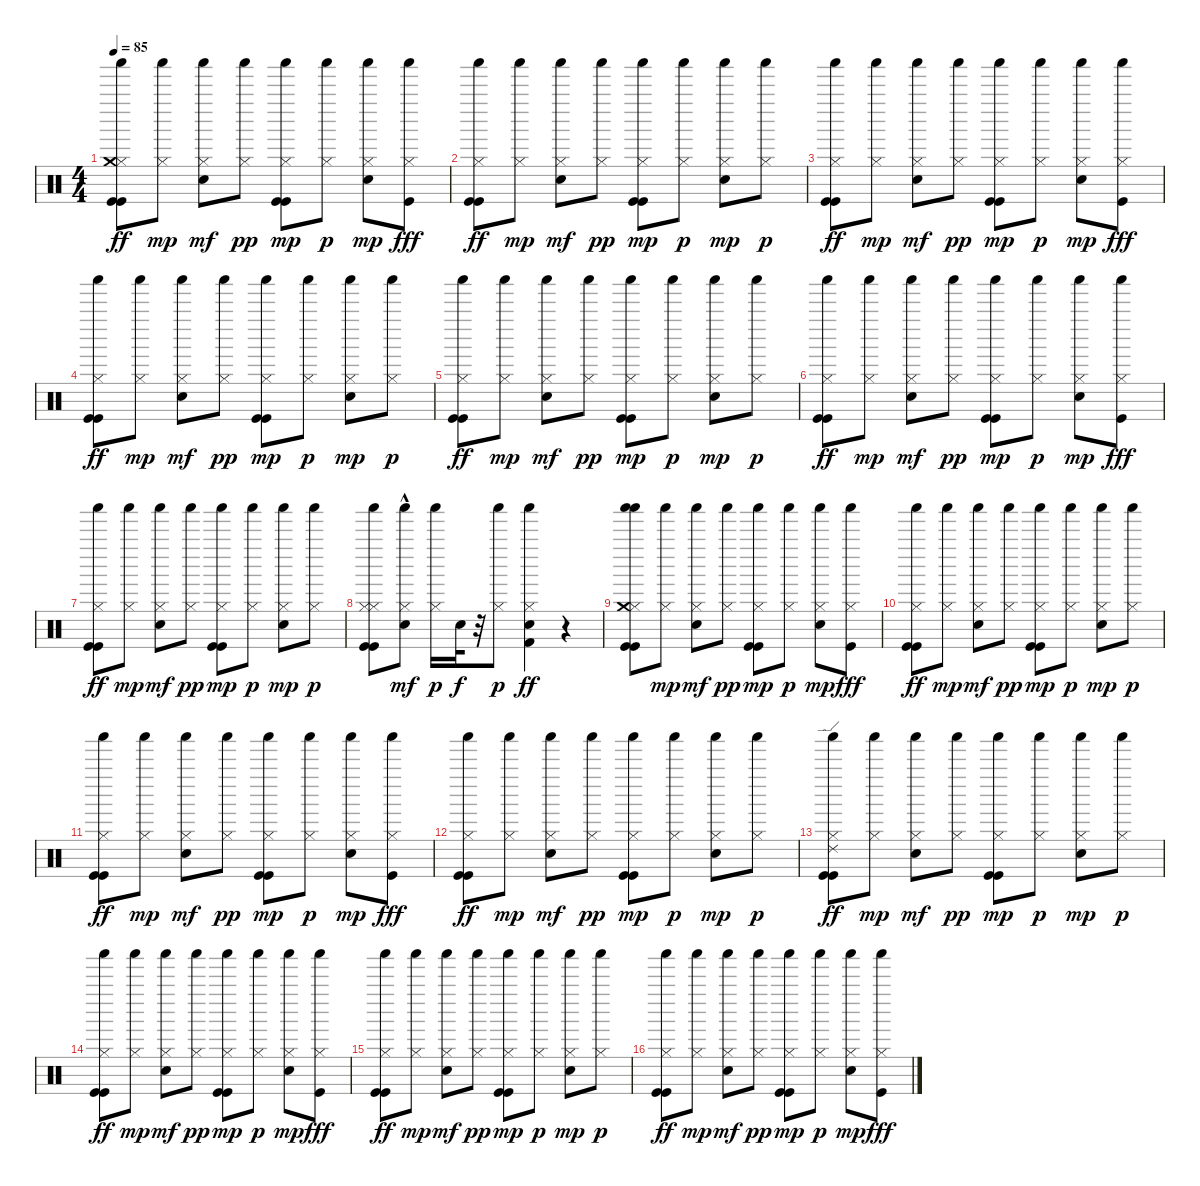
\track "" {instrument percussion}
\staff {score}
\articulation defaults
\ts (4 4)
\tempo 85
\clef neutral
\ks c
("Kick (hit)" "Hi-Hat (closed)" "Shaker (hit)" "Kick (hit)" "Crash medium (hit)").8{dy ff} ("Hi-Hat (closed)" "Shaker (hit)").8{dy mp} ("Hi-Hat (closed)" "Shaker (hit)" "Metronome (bell)").8{dy mf} ("Hi-Hat (closed)" "Shaker (hit)").8{dy pp} ("Kick (hit)" "Kick (hit)" "Hi-Hat (closed)" "Shaker (hit)").8{dy mp} ("Hi-Hat (closed)" "Shaker (hit)").8{dy p} ("Metronome (bell)" "Shaker (hit)" "Hi-Hat (closed)").8{dy mp} ("Hi-Hat (closed)" "Shaker (hit)" "Kick (hit)").8{dy fff} |
("Kick (hit)" "Hi-Hat (closed)" "Shaker (hit)" "Kick (hit)").8{dy ff} ("Hi-Hat (closed)" "Shaker (hit)").8{dy mp} ("Hi-Hat (closed)" "Shaker (hit)" "Metronome (bell)").8{dy mf} ("Hi-Hat (closed)" "Shaker (hit)").8{dy pp} ("Kick (hit)" "Kick (hit)" "Hi-Hat (closed)" "Shaker (hit)").8{dy mp} ("Hi-Hat (closed)" "Shaker (hit)").8{dy p} ("Metronome (bell)" "Shaker (hit)" "Hi-Hat (closed)").8{dy mp} ("Hi-Hat (closed)" "Shaker (hit)").8{dy p} |
("Kick (hit)" "Hi-Hat (closed)" "Shaker (hit)" "Kick (hit)").8{dy ff} ("Hi-Hat (closed)" "Shaker (hit)").8{dy mp} ("Hi-Hat (closed)" "Shaker (hit)" "Metronome (bell)").8{dy mf} ("Hi-Hat (closed)" "Shaker (hit)").8{dy pp} ("Kick (hit)" "Kick (hit)" "Hi-Hat (closed)" "Shaker (hit)").8{dy mp} ("Hi-Hat (closed)" "Shaker (hit)").8{dy p} ("Metronome (bell)" "Shaker (hit)" "Hi-Hat (closed)").8{dy mp} ("Hi-Hat (closed)" "Shaker (hit)" "Kick (hit)").8{dy fff} |
("Kick (hit)" "Hi-Hat (closed)" "Shaker (hit)" "Kick (hit)").8{dy ff} ("Hi-Hat (closed)" "Shaker (hit)").8{dy mp} ("Hi-Hat (closed)" "Shaker (hit)" "Metronome (bell)").8{dy mf} ("Hi-Hat (closed)" "Shaker (hit)").8{dy pp} ("Kick (hit)" "Kick (hit)" "Hi-Hat (closed)" "Shaker (hit)").8{dy mp} ("Hi-Hat (closed)" "Shaker (hit)").8{dy p} ("Metronome (bell)" "Shaker (hit)" "Hi-Hat (closed)").8{dy mp} ("Hi-Hat (closed)" "Shaker (hit)").8{dy p} |
("Kick (hit)" "Hi-Hat (closed)" "Shaker (hit)" "Kick (hit)").8{dy ff} ("Hi-Hat (closed)" "Shaker (hit)").8{dy mp} ("Hi-Hat (closed)" "Shaker (hit)" "Metronome (bell)").8{dy mf} ("Hi-Hat (closed)" "Shaker (hit)").8{dy pp} ("Kick (hit)" "Kick (hit)" "Hi-Hat (closed)" "Shaker (hit)").8{dy mp} ("Hi-Hat (closed)" "Shaker (hit)").8{dy p} ("Metronome (bell)" "Shaker (hit)" "Hi-Hat (closed)").8{dy mp} ("Hi-Hat (closed)" "Shaker (hit)").8{dy p} |
("Kick (hit)" "Hi-Hat (closed)" "Shaker (hit)" "Kick (hit)").8{dy ff} ("Hi-Hat (closed)" "Shaker (hit)").8{dy mp} ("Hi-Hat (closed)" "Shaker (hit)" "Metronome (bell)").8{dy mf} ("Hi-Hat (closed)" "Shaker (hit)").8{dy pp} ("Kick (hit)" "Kick (hit)" "Hi-Hat (closed)" "Shaker (hit)").8{dy mp} ("Hi-Hat (closed)" "Shaker (hit)").8{dy p} ("Metronome (bell)" "Shaker (hit)" "Hi-Hat (closed)").8{dy mp} ("Hi-Hat (closed)" "Shaker (hit)" "Kick (hit)").8{dy fff} |
("Kick (hit)" "Hi-Hat (closed)" "Shaker (hit)" "Kick (hit)").8{dy ff} ("Hi-Hat (closed)" "Shaker (hit)").8{dy mp} ("Hi-Hat (closed)" "Shaker (hit)" "Metronome (bell)").8{dy mf} ("Hi-Hat (closed)" "Shaker (hit)").8{dy pp} ("Kick (hit)" "Kick (hit)" "Hi-Hat (closed)" "Shaker (hit)").8{dy mp} ("Hi-Hat (closed)" "Shaker (hit)").8{dy p} ("Metronome (bell)" "Shaker (hit)" "Hi-Hat (closed)").8{dy mp} ("Hi-Hat (closed)" "Shaker (hit)").8{dy p} |
("Kick (hit)" "Hi-Hat (closed)" "Shaker (hit)" "Kick (hit)" "Hi-Hat (closed)").8 ("Hi-Hat (closed)" "Shaker (hit)" "Metronome (bell)"{hac}).8{dy mf} ("Hi-Hat (closed)" "Shaker (hit)").16{dy p} "Metronome (bell)".32{dy f} r.32 ("Hi-Hat (closed)" "Shaker (hit)").8{dy p} ("Metronome (bell)" "Hi-Hat (closed)" "Shaker (hit)" "Kick (hit) 2").4{dy ff} r.4 |
("Shaker (hit)" "Kick (hit)" "Hi-Hat (closed)" "Shaker (hit)" "Kick (hit)" "Crash medium (hit)").8 ("Hi-Hat (closed)" "Shaker (hit)").8{dy mp} ("Hi-Hat (closed)" "Shaker (hit)" "Metronome (bell)").8{dy mf} ("Hi-Hat (closed)" "Shaker (hit)").8{dy pp} ("Kick (hit)" "Kick (hit)" "Hi-Hat (closed)" "Shaker (hit)").8{dy mp} ("Hi-Hat (closed)" "Shaker (hit)").8{dy p} ("Metronome (bell)" "Shaker (hit)" "Hi-Hat (closed)").8{dy mp} ("Hi-Hat (closed)" "Shaker (hit)" "Kick (hit)").8{dy fff} |
("Kick (hit)" "Hi-Hat (closed)" "Shaker (hit)" "Kick (hit)").8{dy ff} ("Hi-Hat (closed)" "Shaker (hit)").8{dy mp} ("Hi-Hat (closed)" "Shaker (hit)" "Metronome (bell)").8{dy mf} ("Hi-Hat (closed)" "Shaker (hit)").8{dy pp} ("Kick (hit)" "Kick (hit)" "Hi-Hat (closed)" "Shaker (hit)").8{dy mp} ("Hi-Hat (closed)" "Shaker (hit)").8{dy p} ("Metronome (bell)" "Shaker (hit)" "Hi-Hat (closed)").8{dy mp} ("Hi-Hat (closed)" "Shaker (hit)").8{dy p} |
("Kick (hit)" "Hi-Hat (closed)" "Shaker (hit)" "Kick (hit)").8{dy ff} ("Hi-Hat (closed)" "Shaker (hit)").8{dy mp} ("Hi-Hat (closed)" "Shaker (hit)" "Metronome (bell)").8{dy mf} ("Hi-Hat (closed)" "Shaker (hit)").8{dy pp} ("Kick (hit)" "Kick (hit)" "Hi-Hat (closed)" "Shaker (hit)").8{dy mp} ("Hi-Hat (closed)" "Shaker (hit)").8{dy p} ("Metronome (bell)" "Shaker (hit)" "Hi-Hat (closed)").8{dy mp} ("Hi-Hat (closed)" "Shaker (hit)" "Kick (hit)").8{dy fff} |
("Kick (hit)" "Hi-Hat (closed)" "Shaker (hit)" "Kick (hit)").8{dy ff} ("Hi-Hat (closed)" "Shaker (hit)").8{dy mp} ("Hi-Hat (closed)" "Shaker (hit)" "Metronome (bell)").8{dy mf} ("Hi-Hat (closed)" "Shaker (hit)").8{dy pp} ("Kick (hit)" "Kick (hit)" "Hi-Hat (closed)" "Shaker (hit)").8{dy mp} ("Hi-Hat (closed)" "Shaker (hit)").8{dy p} ("Metronome (bell)" "Shaker (hit)" "Hi-Hat (closed)").8{dy mp} ("Hi-Hat (closed)" "Shaker (hit)").8{dy p} |
("Kick (hit)" "Hi-Hat (closed)" "Shaker (hit)" "Kick (hit)" "Ride (edge) 2").8{dy ff} ("Hi-Hat (closed)" "Shaker (hit)").8{dy mp} ("Hi-Hat (closed)" "Shaker (hit)" "Metronome (bell)").8{dy mf} ("Hi-Hat (closed)" "Shaker (hit)").8{dy pp} ("Kick (hit)" "Kick (hit)" "Hi-Hat (closed)" "Shaker (hit)").8{dy mp} ("Hi-Hat (closed)" "Shaker (hit)").8{dy p} ("Metronome (bell)" "Shaker (hit)" "Hi-Hat (closed)").8{dy mp} ("Hi-Hat (closed)" "Shaker (hit)").8{dy p} |
("Kick (hit)" "Hi-Hat (closed)" "Shaker (hit)" "Kick (hit)").8{dy ff} ("Hi-Hat (closed)" "Shaker (hit)").8{dy mp} ("Hi-Hat (closed)" "Shaker (hit)" "Metronome (bell)").8{dy mf} ("Hi-Hat (closed)" "Shaker (hit)").8{dy pp} ("Kick (hit)" "Kick (hit)" "Hi-Hat (closed)" "Shaker (hit)").8{dy mp} ("Hi-Hat (closed)" "Shaker (hit)").8{dy p} ("Metronome (bell)" "Shaker (hit)" "Hi-Hat (closed)").8{dy mp} ("Hi-Hat (closed)" "Shaker (hit)" "Kick (hit)").8{dy fff} |
("Kick (hit)" "Hi-Hat (closed)" "Shaker (hit)" "Kick (hit)").8{dy ff} ("Hi-Hat (closed)" "Shaker (hit)").8{dy mp} ("Hi-Hat (closed)" "Shaker (hit)" "Metronome (bell)").8{dy mf} ("Hi-Hat (closed)" "Shaker (hit)").8{dy pp} ("Kick (hit)" "Kick (hit)" "Hi-Hat (closed)" "Shaker (hit)").8{dy mp} ("Hi-Hat (closed)" "Shaker (hit)").8{dy p} ("Metronome (bell)" "Shaker (hit)" "Hi-Hat (closed)").8{dy mp} ("Hi-Hat (closed)" "Shaker (hit)").8{dy p} |
("Kick (hit)" "Hi-Hat (closed)" "Shaker (hit)" "Kick (hit)").8{dy ff} ("Hi-Hat (closed)" "Shaker (hit)").8{dy mp} ("Hi-Hat (closed)" "Shaker (hit)" "Metronome (bell)").8{dy mf} ("Hi-Hat (closed)" "Shaker (hit)").8{dy pp} ("Kick (hit)" "Kick (hit)" "Hi-Hat (closed)" "Shaker (hit)").8{dy mp} ("Hi-Hat (closed)" "Shaker (hit)").8{dy p} ("Metronome (bell)" "Shaker (hit)" "Hi-Hat (closed)").8{dy mp} ("Hi-Hat (closed)" "Shaker (hit)" "Kick (hit)").8{dy fff}
